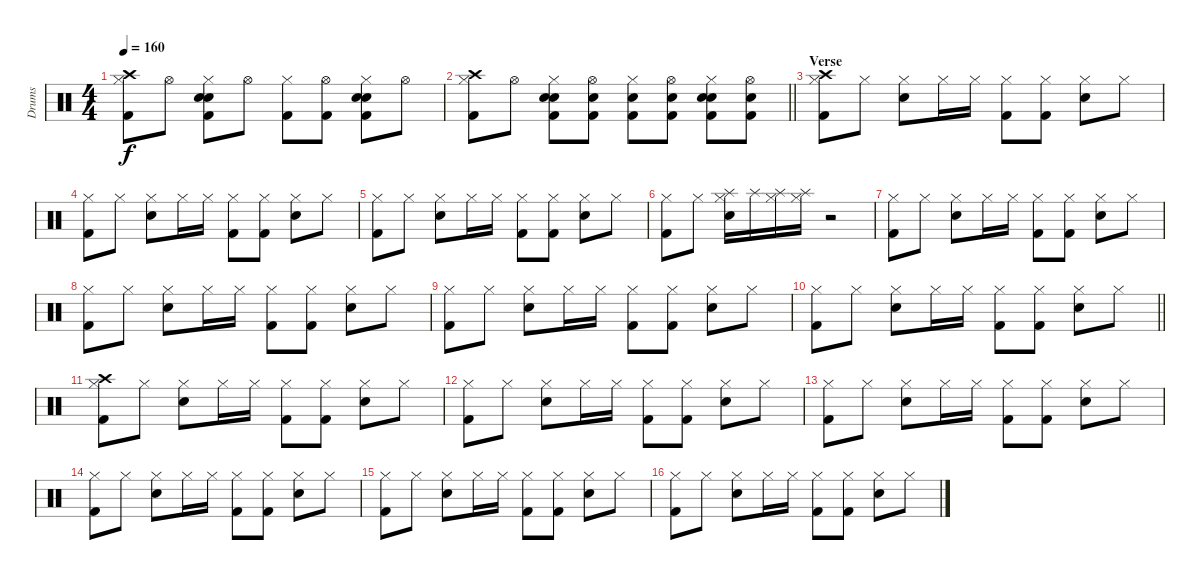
\track ("Drums" "Drums") {instrument percussion}
\staff {score}
\articulation defaults
\ts (4 4)
\tempo 160
\clef neutral
\ks c
("Hi-Hat (closed)" "Crash high (hit)" "Kick (hit) 2").8{dy f} "Hi-Hat (open)".8 ("Hi-Hat (closed)" "Electric Snare (hit)" "Hand Clap (hit)" "Kick (hit) 2").8 "Hi-Hat (open)".8 ("Hi-Hat (closed)" "Kick (hit) 2").8 ("Hi-Hat (open)" "Kick (hit) 2").8 ("Hi-Hat (closed)" "Electric Snare (hit)" "Hand Clap (hit)" "Kick (hit) 2").8 "Hi-Hat (open)".8 |
\barLineRight lightlight
("Hi-Hat (closed)" "Crash high (hit)" "Kick (hit) 2").8 "Hi-Hat (open)".8 ("Hi-Hat (closed)" "Electric Snare (hit)" "Hand Clap (hit)" "Kick (hit) 2").8 ("Hi-Hat (open)" "Electric Snare (hit)" "Kick (hit) 2").8 ("Hi-Hat (closed)" "Electric Snare (hit)" "Kick (hit) 2").8 ("Hi-Hat (open)" "Electric Snare (hit)" "Kick (hit) 2").8 ("Hi-Hat (closed)" "Electric Snare (hit)" "Hand Clap (hit)" "Kick (hit) 2").8 ("Hi-Hat (open)" "Electric Snare (hit)" "Kick (hit) 2").8 |
\section ("" "Verse")
("Hi-Hat (closed)" "Crash high (hit)" "Kick (hit) 2").8 "Hi-Hat (closed)".8 ("Hi-Hat (closed)" "Electric Snare (hit)").8 "Hi-Hat (closed)".16 "Hi-Hat (closed)".16 ("Hi-Hat (closed)" "Kick (hit) 2").8 ("Hi-Hat (closed)" "Kick (hit) 2").8 ("Hi-Hat (closed)" "Electric Snare (hit)").8 "Hi-Hat (closed)".8 |
("Hi-Hat (closed)" "Kick (hit) 2").8 "Hi-Hat (closed)".8 ("Hi-Hat (closed)" "Electric Snare (hit)").8 "Hi-Hat (closed)".16 "Hi-Hat (closed)".16 ("Hi-Hat (closed)" "Kick (hit) 2").8 ("Hi-Hat (closed)" "Kick (hit) 2").8 ("Hi-Hat (closed)" "Electric Snare (hit)").8 "Hi-Hat (closed)".8 |
("Hi-Hat (closed)" "Kick (hit) 2").8 "Hi-Hat (closed)".8 ("Hi-Hat (closed)" "Electric Snare (hit)").8 "Hi-Hat (closed)".16 "Hi-Hat (closed)".16 ("Hi-Hat (closed)" "Kick (hit) 2").8 ("Hi-Hat (closed)" "Kick (hit) 2").8 ("Hi-Hat (closed)" "Electric Snare (hit)").8 "Hi-Hat (closed)".8 |
("Hi-Hat (closed)" "Kick (hit) 2").8 "Hi-Hat (closed)".8 ("Hi-Hat (closed)" "Electric Snare (hit)" "Splash (hit)").16 "Splash (hit)".16 ("Hi-Hat (closed)" "Splash (hit)").16 ("Hi-Hat (closed)" "Splash (hit)").16 r.2 |
("Hi-Hat (closed)" "Kick (hit) 2").8 "Hi-Hat (closed)".8 ("Hi-Hat (closed)" "Electric Snare (hit)").8 "Hi-Hat (closed)".16 "Hi-Hat (closed)".16 ("Hi-Hat (closed)" "Kick (hit) 2").8 ("Hi-Hat (closed)" "Kick (hit) 2").8 ("Hi-Hat (closed)" "Electric Snare (hit)").8 "Hi-Hat (closed)".8 |
("Hi-Hat (closed)" "Kick (hit) 2").8 "Hi-Hat (closed)".8 ("Hi-Hat (closed)" "Electric Snare (hit)").8 "Hi-Hat (closed)".16 "Hi-Hat (closed)".16 ("Hi-Hat (closed)" "Kick (hit) 2").8 ("Hi-Hat (closed)" "Kick (hit) 2").8 ("Hi-Hat (closed)" "Electric Snare (hit)").8 "Hi-Hat (closed)".8 |
("Hi-Hat (closed)" "Kick (hit) 2").8 "Hi-Hat (closed)".8 ("Hi-Hat (closed)" "Electric Snare (hit)").8 "Hi-Hat (closed)".16 "Hi-Hat (closed)".16 ("Hi-Hat (closed)" "Kick (hit) 2").8 ("Hi-Hat (closed)" "Kick (hit) 2").8 ("Hi-Hat (closed)" "Electric Snare (hit)").8 "Hi-Hat (closed)".8 |
\barLineRight lightlight
("Hi-Hat (closed)" "Kick (hit) 2").8 "Hi-Hat (closed)".8 ("Hi-Hat (closed)" "Electric Snare (hit)").8 "Hi-Hat (closed)".16 "Hi-Hat (closed)".16 ("Hi-Hat (closed)" "Kick (hit) 2").8 ("Hi-Hat (closed)" "Kick (hit) 2").8 ("Hi-Hat (closed)" "Electric Snare (hit)").8 "Hi-Hat (closed)".8 |
("Hi-Hat (closed)" "Crash high (hit)" "Kick (hit) 2").8 "Hi-Hat (closed)".8 ("Hi-Hat (closed)" "Electric Snare (hit)").8 "Hi-Hat (closed)".16 "Hi-Hat (closed)".16 ("Hi-Hat (closed)" "Kick (hit) 2").8 ("Hi-Hat (closed)" "Kick (hit) 2").8 ("Hi-Hat (closed)" "Electric Snare (hit)").8 "Hi-Hat (closed)".8 |
("Hi-Hat (closed)" "Kick (hit) 2").8 "Hi-Hat (closed)".8 ("Hi-Hat (closed)" "Electric Snare (hit)").8 "Hi-Hat (closed)".16 "Hi-Hat (closed)".16 ("Hi-Hat (closed)" "Kick (hit) 2").8 ("Hi-Hat (closed)" "Kick (hit) 2").8 ("Hi-Hat (closed)" "Electric Snare (hit)").8 "Hi-Hat (closed)".8 |
("Hi-Hat (closed)" "Kick (hit) 2").8 "Hi-Hat (closed)".8 ("Hi-Hat (closed)" "Electric Snare (hit)").8 "Hi-Hat (closed)".16 "Hi-Hat (closed)".16 ("Hi-Hat (closed)" "Kick (hit) 2").8 ("Hi-Hat (closed)" "Kick (hit) 2").8 ("Hi-Hat (closed)" "Electric Snare (hit)").8 "Hi-Hat (closed)".8 |
("Hi-Hat (closed)" "Kick (hit) 2").8 "Hi-Hat (closed)".8 ("Hi-Hat (closed)" "Electric Snare (hit)").8 "Hi-Hat (closed)".16 "Hi-Hat (closed)".16 ("Hi-Hat (closed)" "Kick (hit) 2").8 ("Hi-Hat (closed)" "Kick (hit) 2").8 ("Hi-Hat (closed)" "Electric Snare (hit)").8 "Hi-Hat (closed)".8 |
("Hi-Hat (closed)" "Kick (hit) 2").8 "Hi-Hat (closed)".8 ("Hi-Hat (closed)" "Electric Snare (hit)").8 "Hi-Hat (closed)".16 "Hi-Hat (closed)".16 ("Hi-Hat (closed)" "Kick (hit) 2").8 ("Hi-Hat (closed)" "Kick (hit) 2").8 ("Hi-Hat (closed)" "Electric Snare (hit)").8 "Hi-Hat (closed)".8 |
("Hi-Hat (closed)" "Kick (hit) 2").8 "Hi-Hat (closed)".8 ("Hi-Hat (closed)" "Electric Snare (hit)").8 "Hi-Hat (closed)".16 "Hi-Hat (closed)".16 ("Hi-Hat (closed)" "Kick (hit) 2").8 ("Hi-Hat (closed)" "Kick (hit) 2").8 ("Hi-Hat (closed)" "Electric Snare (hit)").8 "Hi-Hat (closed)".8
